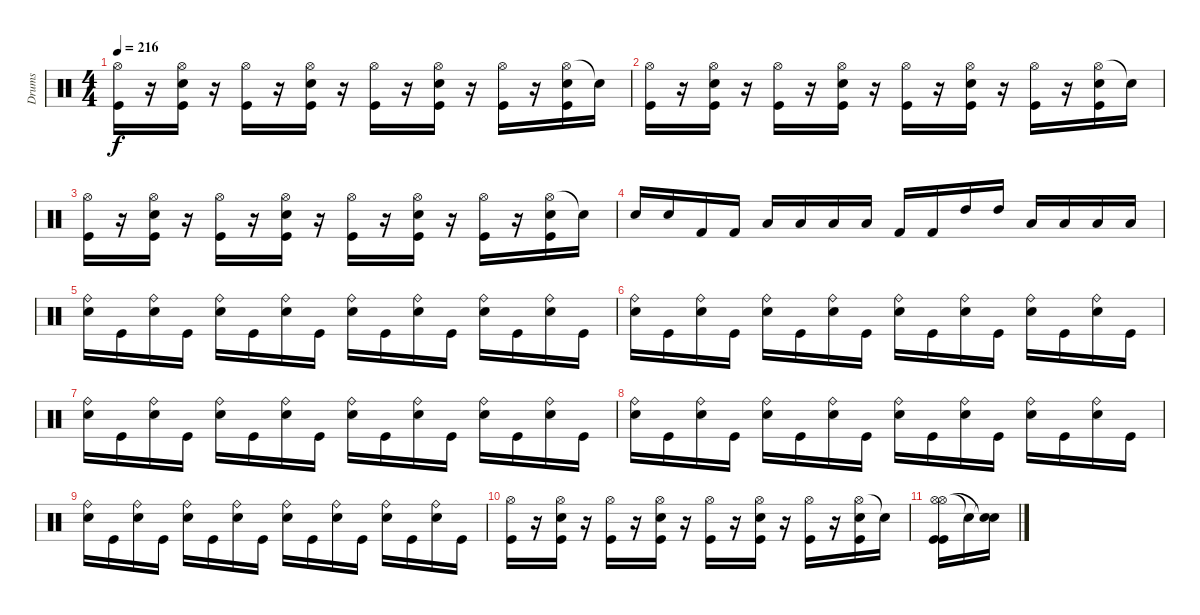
\track ("Drums" "Drums") {instrument percussion}
\staff {score}
\articulation defaults
\ts (4 4)
\tempo 216
\clef neutral
\ks c
("Hi-Hat (open)" "Kick (hit)").16{dy f} r.16 ("Hi-Hat (open)" "Snare (hit) 2" "Kick (hit)").16 r.16 ("Hi-Hat (open)" "Kick (hit)").16 r.16 ("Hi-Hat (open)" "Snare (hit) 2" "Kick (hit)").16 r.16 ("Hi-Hat (open)" "Kick (hit)").16 r.16 ("Hi-Hat (open)" "Snare (hit) 2" "Kick (hit)").16 r.16 ("Hi-Hat (open)" "Kick (hit)").16 r.16 ("Hi-Hat (open)" "Snare (hit) 2" "Kick (hit)").16 "Snare (hit)"{t}.16 |
("Hi-Hat (open)" "Kick (hit)").16 r.16 ("Hi-Hat (open)" "Snare (hit) 2" "Kick (hit)").16 r.16 ("Hi-Hat (open)" "Kick (hit)").16 r.16 ("Hi-Hat (open)" "Snare (hit) 2" "Kick (hit)").16 r.16 ("Hi-Hat (open)" "Kick (hit)").16 r.16 ("Hi-Hat (open)" "Snare (hit) 2" "Kick (hit)").16 r.16 ("Hi-Hat (open)" "Kick (hit)").16 r.16 ("Hi-Hat (open)" "Snare (hit) 2" "Kick (hit)").16 "Snare (hit)"{t}.16 |
("Hi-Hat (open)" "Kick (hit)").16 r.16 ("Hi-Hat (open)" "Snare (hit) 2" "Kick (hit)").16 r.16 ("Hi-Hat (open)" "Kick (hit)").16 r.16 ("Hi-Hat (open)" "Snare (hit) 2" "Kick (hit)").16 r.16 ("Hi-Hat (open)" "Kick (hit)").16 r.16 ("Hi-Hat (open)" "Snare (hit) 2" "Kick (hit)").16 r.16 ("Hi-Hat (open)" "Kick (hit)").16 r.16 ("Hi-Hat (open)" "Snare (hit) 2" "Kick (hit)").16 "Snare (hit)"{t}.16 |
"Snare (hit) 2".16 "Snare (hit) 2".16 "Kick (hit) 2".16 "Kick (hit) 2".16 "Low Tom (hit)".16 "Low Tom (hit)".16 "Low Tom (hit)".16 "Low Tom (hit)".16 "Kick (hit) 2".16 "Kick (hit) 2".16 "High Tom (hit)".16 "High Tom (hit)".16 "Low Floor Tom (hit)".16 "Low Floor Tom (hit)".16 "Low Floor Tom (hit)".16 "Low Floor Tom (hit)".16 |
("Electric Snare (hit)" "Ride (bell)").16 "Kick (hit)".16 ("Electric Snare (hit)" "Ride (bell)").16 "Kick (hit)".16 ("Electric Snare (hit)" "Ride (bell)").16 "Kick (hit)".16 ("Electric Snare (hit)" "Ride (bell)").16 "Kick (hit)".16 ("Electric Snare (hit)" "Ride (bell)").16 "Kick (hit)".16 ("Electric Snare (hit)" "Ride (bell)").16 "Kick (hit)".16 ("Electric Snare (hit)" "Ride (bell)").16 "Kick (hit)".16 ("Electric Snare (hit)" "Ride (bell)").16 "Kick (hit)".16 |
("Electric Snare (hit)" "Ride (bell)").16 "Kick (hit)".16 ("Electric Snare (hit)" "Ride (bell)").16 "Kick (hit)".16 ("Electric Snare (hit)" "Ride (bell)").16 "Kick (hit)".16 ("Electric Snare (hit)" "Ride (bell)").16 "Kick (hit)".16 ("Electric Snare (hit)" "Ride (bell)").16 "Kick (hit)".16 ("Electric Snare (hit)" "Ride (bell)").16 "Kick (hit)".16 ("Electric Snare (hit)" "Ride (bell)").16 "Kick (hit)".16 ("Electric Snare (hit)" "Ride (bell)").16 "Kick (hit)".16 |
("Electric Snare (hit)" "Ride (bell)").16 "Kick (hit)".16 ("Electric Snare (hit)" "Ride (bell)").16 "Kick (hit)".16 ("Electric Snare (hit)" "Ride (bell)").16 "Kick (hit)".16 ("Electric Snare (hit)" "Ride (bell)").16 "Kick (hit)".16 ("Electric Snare (hit)" "Ride (bell)").16 "Kick (hit)".16 ("Electric Snare (hit)" "Ride (bell)").16 "Kick (hit)".16 ("Electric Snare (hit)" "Ride (bell)").16 "Kick (hit)".16 ("Electric Snare (hit)" "Ride (bell)").16 "Kick (hit)".16 |
("Electric Snare (hit)" "Ride (bell)").16 "Kick (hit)".16 ("Electric Snare (hit)" "Ride (bell)").16 "Kick (hit)".16 ("Electric Snare (hit)" "Ride (bell)").16 "Kick (hit)".16 ("Electric Snare (hit)" "Ride (bell)").16 "Kick (hit)".16 ("Electric Snare (hit)" "Ride (bell)").16 "Kick (hit)".16 ("Electric Snare (hit)" "Ride (bell)").16 "Kick (hit)".16 ("Electric Snare (hit)" "Ride (bell)").16 "Kick (hit)".16 ("Electric Snare (hit)" "Ride (bell)").16 "Kick (hit)".16 |
("Electric Snare (hit)" "Ride (bell)").16 "Kick (hit)".16 ("Electric Snare (hit)" "Ride (bell)").16 "Kick (hit)".16 ("Electric Snare (hit)" "Ride (bell)").16 "Kick (hit)".16 ("Electric Snare (hit)" "Ride (bell)").16 "Kick (hit)".16 ("Electric Snare (hit)" "Ride (bell)").16 "Kick (hit)".16 ("Electric Snare (hit)" "Ride (bell)").16 "Kick (hit)".16 ("Electric Snare (hit)" "Ride (bell)").16 "Kick (hit)".16 ("Electric Snare (hit)" "Ride (bell)").16 "Kick (hit)".16 |
("Hi-Hat (open)" "Kick (hit)").16 r.16 ("Hi-Hat (open)" "Snare (hit) 2" "Kick (hit)").16 r.16 ("Hi-Hat (open)" "Kick (hit)").16 r.16 ("Hi-Hat (open)" "Snare (hit) 2" "Kick (hit)").16 r.16 ("Hi-Hat (open)" "Kick (hit)").16 r.16 ("Hi-Hat (open)" "Snare (hit) 2" "Kick (hit)").16 r.16 ("Hi-Hat (open)" "Kick (hit)").16 r.16 ("Hi-Hat (open)" "Snare (hit) 2" "Kick (hit)").16 "Snare (hit)"{t}.16 |
("Hi-Hat (open)" "Hi-Hat (open)" "Kick (hit)" "Kick (hit)").16 "Snare (hit)"{t}.16 ("Snare (hit)"{t} "Snare (hit)"{t}).16
